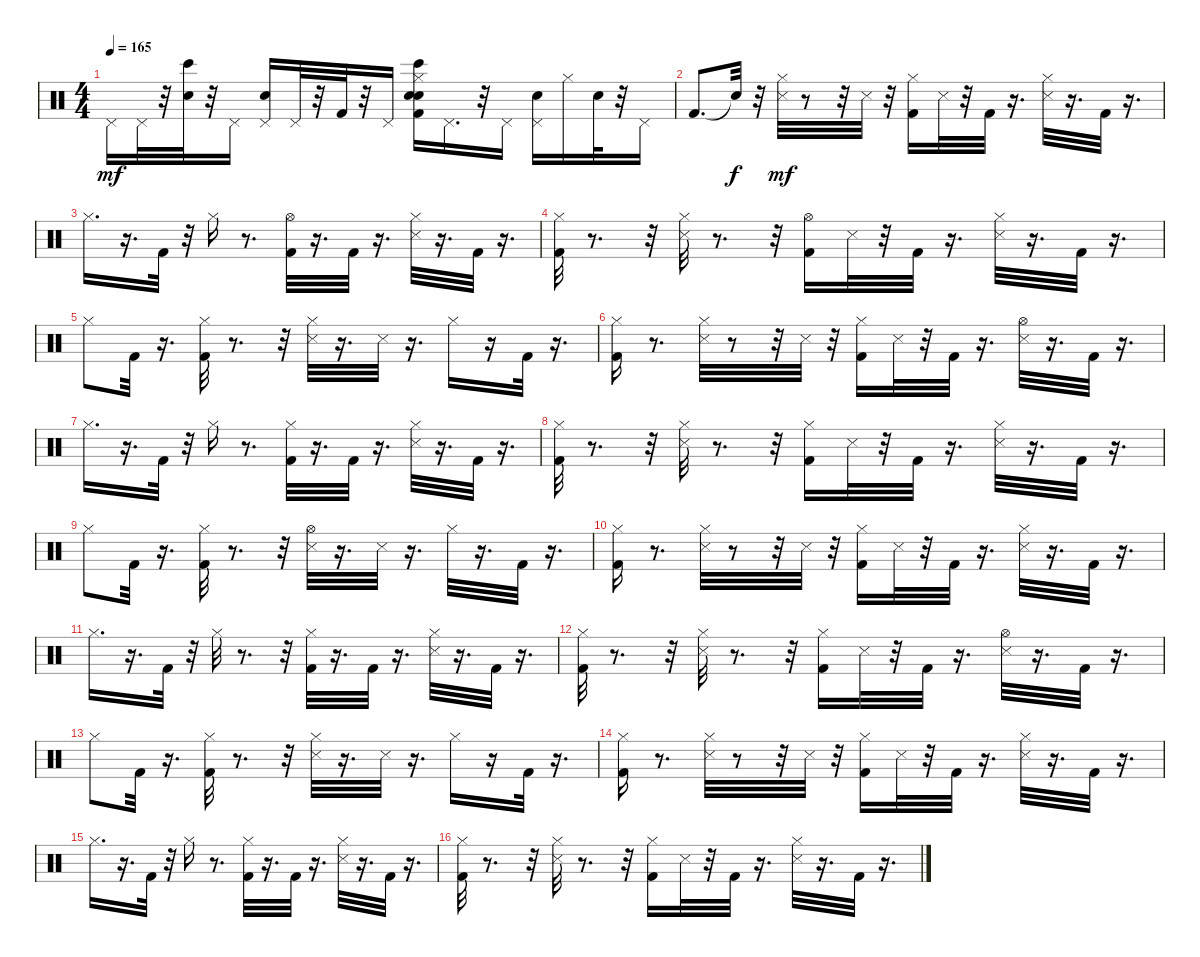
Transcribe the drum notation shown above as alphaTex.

\track (" " " ") {instrument percussion}
\staff {score}
\articulation defaults
\ts (4 4)
\tempo 165
\clef neutral
\ks c "Pedal Hi-Hat (hit)".16{dy mf} "Pedal Hi-Hat (hit)".32
r.32 ("Bongo High (hit)" "Hand Clap (hit)").32 r.32 "Pedal Hi-Hat (hit)".16 ("Electric Snare (hit)" "Pedal Hi-Hat (hit)").16 "Pedal Hi-Hat (hit)".32 r.32 "Kick (hit) 2".32 r.32 "Pedal Hi-Hat (hit)".16 ("Bongo High (hit)" "Kick (hit) 2" "Hand Clap (hit)" "Electric Snare (hit)" "Hi-Hat (closed)").16 "Pedal Hi-Hat (hit)".16{d} r.32 "Pedal Hi-Hat (hit)".16 ("Electric Snare (hit)" "Pedal Hi-Hat (hit)").16 "Hi-Hat (closed)".16 "Electric Snare (hit)".32 r.32 "Pedal Hi-Hat (hit)".16 |
"Kick (hit) 2".8{d} "Snare (hit)"{t}.32{dy f} r.32 ("Snare (side stick) 3" "Hi-Hat (closed)").32{dy mf} r.8 r.32 "Snare (side stick) 3".32 r.32 ("Kick (hit) 2" "Hi-Hat (closed)").16 "Snare (side stick) 3".32 r.32 "Kick (hit) 2".32 r.16{d} ("Snare (side stick) 3" "Hi-Hat (closed)").32 r.16{d} "Kick (hit) 2".32 r.16{d} |
"Hi-Hat (closed)".16{d} r.16{d} "Kick (hit) 2".32 r.32 "Hi-Hat (closed)".16 r.8{d} ("Kick (hit) 2" "Hi-Hat (open)").32 r.16{d} "Kick (hit) 2".32 r.16{d} ("Snare (side stick) 3" "Hi-Hat (closed)").32 r.16{d} "Kick (hit) 2".32 r.16{d} |
("Kick (hit) 2" "Hi-Hat (closed)").32 r.8{d} r.32 ("Snare (side stick) 3" "Hi-Hat (closed)").32 r.8{d} r.32 ("Kick (hit) 2" "Hi-Hat (open)").16 "Snare (side stick) 3".32 r.32 "Kick (hit) 2".32 r.16{d} ("Snare (side stick) 3" "Hi-Hat (closed)").32 r.16{d} "Kick (hit) 2".32 r.16{d} |
"Hi-Hat (closed)".8 "Kick (hit) 2".32 r.16{d} ("Kick (hit) 2" "Hi-Hat (closed)").32 r.8{d} r.32 ("Snare (side stick) 3" "Hi-Hat (closed)").32 r.16{d} "Snare (side stick) 3".32 r.16{d} "Hi-Hat (closed)".16 r.16 "Kick (hit) 2".32 r.16{d} |
("Kick (hit) 2" "Hi-Hat (closed)").16 r.8{d} ("Snare (side stick) 3" "Hi-Hat (closed)").32 r.8 r.32 "Snare (side stick) 3".32 r.32 ("Kick (hit) 2" "Hi-Hat (closed)").16 "Snare (side stick) 3".32 r.32 "Kick (hit) 2".32 r.16{d} ("Snare (side stick) 3" "Hi-Hat (open)").32 r.16{d} "Kick (hit) 2".32 r.16{d} |
"Hi-Hat (closed)".16{d} r.16{d} "Kick (hit) 2".32 r.32 "Hi-Hat (closed)".16 r.8{d} ("Kick (hit) 2" "Hi-Hat (closed)").32 r.16{d} "Kick (hit) 2".32 r.16{d} ("Snare (side stick) 3" "Hi-Hat (closed)").32 r.16{d} "Kick (hit) 2".32 r.16{d} |
("Kick (hit) 2" "Hi-Hat (closed)").32 r.8{d} r.32 ("Snare (side stick) 3" "Hi-Hat (closed)").32 r.8{d} r.32 ("Kick (hit) 2" "Hi-Hat (closed)").16 "Snare (side stick) 3".32 r.32 "Kick (hit) 2".32 r.16{d} ("Snare (side stick) 3" "Hi-Hat (closed)").32 r.16{d} "Kick (hit) 2".32 r.16{d} |
"Hi-Hat (closed)".8 "Kick (hit) 2".32 r.16{d} ("Kick (hit) 2" "Hi-Hat (closed)").32 r.8{d} r.32 ("Snare (side stick) 3" "Hi-Hat (open)").32 r.16{d} "Snare (side stick) 3".32 r.16{d} "Hi-Hat (closed)".32 r.16{d} "Kick (hit) 2".32 r.16{d} |
("Kick (hit) 2" "Hi-Hat (closed)").16 r.8{d} ("Snare (side stick) 3" "Hi-Hat (closed)").32 r.8 r.32 "Snare (side stick) 3".32 r.32 ("Kick (hit) 2" "Hi-Hat (closed)").16 "Snare (side stick) 3".32 r.32 "Kick (hit) 2".32 r.16{d} ("Snare (side stick) 3" "Hi-Hat (closed)").32 r.16{d} "Kick (hit) 2".32 r.16{d} |
"Hi-Hat (closed)".16{d} r.16{d} "Kick (hit) 2".32 r.32 "Hi-Hat (closed)".32 r.8{d} r.32 ("Kick (hit) 2" "Hi-Hat (closed)").32 r.16{d} "Kick (hit) 2".32 r.16{d} ("Snare (side stick) 3" "Hi-Hat (closed)").32 r.16{d} "Kick (hit) 2".32 r.16{d} |
("Kick (hit) 2" "Hi-Hat (closed)").32 r.8{d} r.32 ("Snare (side stick) 3" "Hi-Hat (closed)").32 r.8{d} r.32 ("Kick (hit) 2" "Hi-Hat (closed)").16 "Snare (side stick) 3".32 r.32 "Kick (hit) 2".32 r.16{d} ("Snare (side stick) 3" "Hi-Hat (open)").32 r.16{d} "Kick (hit) 2".32 r.16{d} |
"Hi-Hat (closed)".8 "Kick (hit) 2".32 r.16{d} ("Kick (hit) 2" "Hi-Hat (closed)").32 r.8{d} r.32 ("Snare (side stick) 3" "Hi-Hat (closed)").32 r.16{d} "Snare (side stick) 3".32 r.16{d} "Hi-Hat (closed)".16 r.16 "Kick (hit) 2".32 r.16{d} |
("Kick (hit) 2" "Hi-Hat (closed)").16 r.8{d} ("Snare (side stick) 3" "Hi-Hat (closed)").32 r.8 r.32 "Snare (side stick) 3".32 r.32 ("Kick (hit) 2" "Hi-Hat (closed)").16 "Snare (side stick) 3".32 r.32 "Kick (hit) 2".32 r.16{d} ("Snare (side stick) 3" "Hi-Hat (closed)").32 r.16{d} "Kick (hit) 2".32 r.16{d} |
"Hi-Hat (closed)".16{d} r.16{d} "Kick (hit) 2".32 r.32 "Hi-Hat (closed)".16 r.8{d} ("Kick (hit) 2" "Hi-Hat (closed)").32 r.16{d} "Kick (hit) 2".32 r.16{d} ("Snare (side stick) 3" "Hi-Hat (closed)").32 r.16{d} "Kick (hit) 2".32 r.16{d} |
("Kick (hit) 2" "Hi-Hat (closed)").32 r.8{d} r.32 ("Snare (side stick) 3" "Hi-Hat (closed)").32 r.8{d} r.32 ("Kick (hit) 2" "Hi-Hat (closed)").16 "Snare (side stick) 3".32 r.32 "Kick (hit) 2".32 r.16{d} ("Snare (side stick) 3" "Hi-Hat (closed)").32 r.16{d} "Kick (hit) 2".32 r.16{d}
